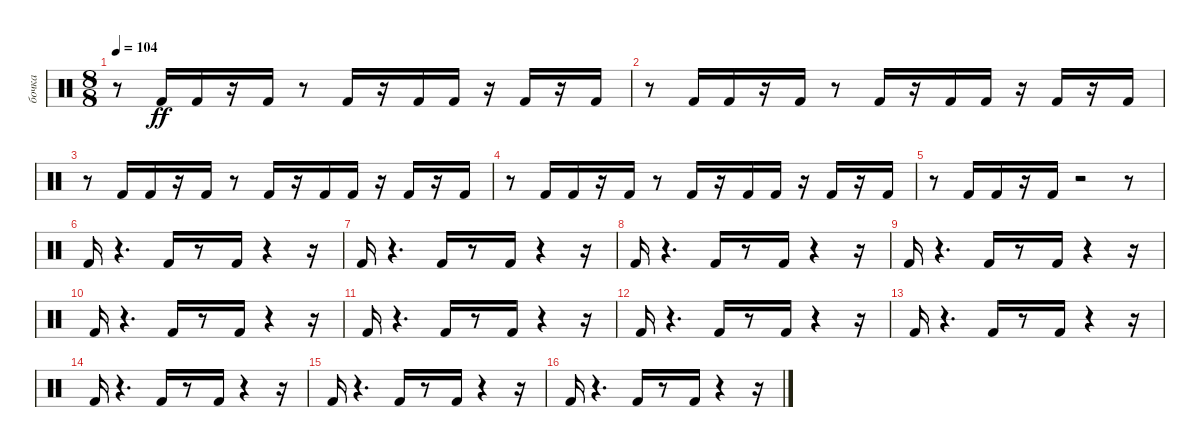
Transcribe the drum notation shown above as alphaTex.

\track ("бочка" "бочка") {instrument percussion}
\staff {score}
\articulation defaults
\ts (8 8)
\tempo 104
\clef neutral
\ks c
r.8{dy ff} "Kick (hit) 2".16 "Kick (hit) 2".16 r.16 "Kick (hit) 2".16 r.8 "Kick (hit) 2".16 r.16 "Kick (hit) 2".16 "Kick (hit) 2".16 r.16 "Kick (hit) 2".16 r.16 "Kick (hit) 2".16 |
r.8 "Kick (hit) 2".16 "Kick (hit) 2".16 r.16 "Kick (hit) 2".16 r.8 "Kick (hit) 2".16 r.16 "Kick (hit) 2".16 "Kick (hit) 2".16 r.16 "Kick (hit) 2".16 r.16 "Kick (hit) 2".16 |
r.8 "Kick (hit) 2".16 "Kick (hit) 2".16 r.16 "Kick (hit) 2".16 r.8 "Kick (hit) 2".16 r.16 "Kick (hit) 2".16 "Kick (hit) 2".16 r.16 "Kick (hit) 2".16 r.16 "Kick (hit) 2".16 |
r.8 "Kick (hit) 2".16 "Kick (hit) 2".16 r.16 "Kick (hit) 2".16 r.8 "Kick (hit) 2".16 r.16 "Kick (hit) 2".16 "Kick (hit) 2".16 r.16 "Kick (hit) 2".16 r.16 "Kick (hit) 2".16 |
r.8 "Kick (hit) 2".16 "Kick (hit) 2".16 r.16 "Kick (hit) 2".16 r.2 r.8 |
"Kick (hit) 2".16 r.4{d} "Kick (hit) 2".16 r.8 "Kick (hit) 2".16 r.4 r.16 |
"Kick (hit) 2".16 r.4{d} "Kick (hit) 2".16 r.8 "Kick (hit) 2".16 r.4 r.16 |
"Kick (hit) 2".16 r.4{d} "Kick (hit) 2".16 r.8 "Kick (hit) 2".16 r.4 r.16 |
"Kick (hit) 2".16 r.4{d} "Kick (hit) 2".16 r.8 "Kick (hit) 2".16 r.4 r.16 |
"Kick (hit) 2".16 r.4{d} "Kick (hit) 2".16 r.8 "Kick (hit) 2".16 r.4 r.16 |
"Kick (hit) 2".16 r.4{d} "Kick (hit) 2".16 r.8 "Kick (hit) 2".16 r.4 r.16 |
"Kick (hit) 2".16 r.4{d} "Kick (hit) 2".16 r.8 "Kick (hit) 2".16 r.4 r.16 |
"Kick (hit) 2".16 r.4{d} "Kick (hit) 2".16 r.8 "Kick (hit) 2".16 r.4 r.16 |
"Kick (hit) 2".16 r.4{d} "Kick (hit) 2".16 r.8 "Kick (hit) 2".16 r.4 r.16 |
"Kick (hit) 2".16 r.4{d} "Kick (hit) 2".16 r.8 "Kick (hit) 2".16 r.4 r.16 |
"Kick (hit) 2".16 r.4{d} "Kick (hit) 2".16 r.8 "Kick (hit) 2".16 r.4 r.16
